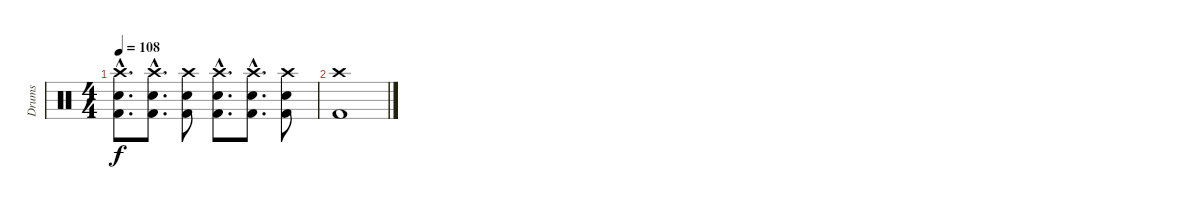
\track ("Drums" "Drums") {instrument percussion}
\staff {score}
\articulation defaults
\ts (4 4)
\tempo 108
\clef neutral
\ks c
("Crash high (hit)"{hac} "Electric Snare (hit)"{hac} "Kick (hit) 2"{hac}).8{d dy f} ("Crash high (hit)"{hac} "Electric Snare (hit)"{hac} "Kick (hit) 2"{hac}).8{d} ("Crash high (hit)" "Electric Snare (hit)" "Kick (hit) 2").8 ("Crash high (hit)"{hac} "Electric Snare (hit)"{hac} "Kick (hit) 2"{hac}).8{d} ("Crash high (hit)"{hac} "Electric Snare (hit)"{hac} "Kick (hit) 2"{hac}).8{d} ("Crash high (hit)" "Electric Snare (hit)" "Kick (hit) 2").8 |
("Crash high (hit)" "Kick (hit) 2").1
